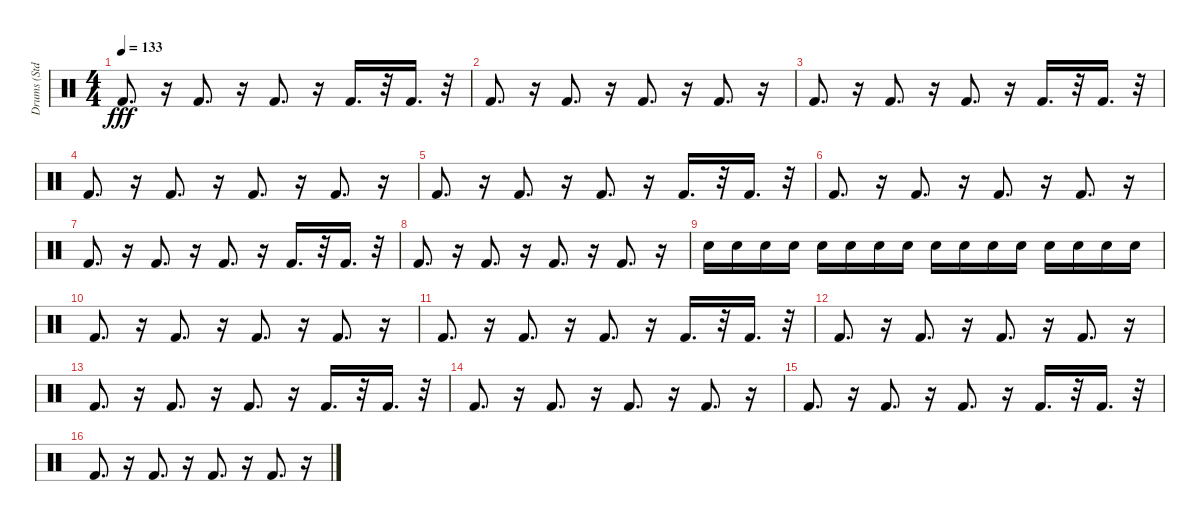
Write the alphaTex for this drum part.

\track ("Drums (Std.)" "Drums (Std") {instrument percussion}
\staff {score}
\articulation defaults
\ts (4 4)
\tempo 133
\clef neutral
\ks c "Kick (hit) 2".8{d dy fff}
r.16 "Kick (hit) 2".8{d} r.16 "Kick (hit) 2".8{d} r.16 "Kick (hit) 2".16{d} r.32 "Kick (hit) 2".16{d} r.32 |
"Kick (hit) 2".8{d} r.16 "Kick (hit) 2".8{d} r.16 "Kick (hit) 2".8{d} r.16 "Kick (hit) 2".8{d} r.16 |
"Kick (hit) 2".8{d} r.16 "Kick (hit) 2".8{d} r.16 "Kick (hit) 2".8{d} r.16 "Kick (hit) 2".16{d} r.32 "Kick (hit) 2".16{d} r.32 |
"Kick (hit) 2".8{d} r.16 "Kick (hit) 2".8{d} r.16 "Kick (hit) 2".8{d} r.16 "Kick (hit) 2".8{d} r.16 |
"Kick (hit) 2".8{d} r.16 "Kick (hit) 2".8{d} r.16 "Kick (hit) 2".8{d} r.16 "Kick (hit) 2".16{d} r.32 "Kick (hit) 2".16{d} r.32 |
"Kick (hit) 2".8{d} r.16 "Kick (hit) 2".8{d} r.16 "Kick (hit) 2".8{d} r.16 "Kick (hit) 2".8{d} r.16 |
"Kick (hit) 2".8{d} r.16 "Kick (hit) 2".8{d} r.16 "Kick (hit) 2".8{d} r.16 "Kick (hit) 2".16{d} r.32 "Kick (hit) 2".16{d} r.32 |
"Kick (hit) 2".8{d} r.16 "Kick (hit) 2".8{d} r.16 "Kick (hit) 2".8{d} r.16 "Kick (hit) 2".8{d} r.16 |
"Snare (hit) 2".16 "Snare (hit) 2".16 "Snare (hit) 2".16 "Snare (hit) 2".16 "Snare (hit) 2".16 "Snare (hit) 2".16 "Snare (hit) 2".16 "Snare (hit) 2".16 "Snare (hit) 2".16 "Snare (hit) 2".16 "Snare (hit) 2".16 "Snare (hit) 2".16 "Snare (hit) 2".16 "Snare (hit) 2".16 "Snare (hit) 2".16 "Snare (hit) 2".16 |
"Kick (hit) 2".8{d} r.16 "Kick (hit) 2".8{d} r.16 "Kick (hit) 2".8{d} r.16 "Kick (hit) 2".8{d} r.16 |
"Kick (hit) 2".8{d} r.16 "Kick (hit) 2".8{d} r.16 "Kick (hit) 2".8{d} r.16 "Kick (hit) 2".16{d} r.32 "Kick (hit) 2".16{d} r.32 |
"Kick (hit) 2".8{d} r.16 "Kick (hit) 2".8{d} r.16 "Kick (hit) 2".8{d} r.16 "Kick (hit) 2".8{d} r.16 |
"Kick (hit) 2".8{d} r.16 "Kick (hit) 2".8{d} r.16 "Kick (hit) 2".8{d} r.16 "Kick (hit) 2".16{d} r.32 "Kick (hit) 2".16{d} r.32 |
"Kick (hit) 2".8{d} r.16 "Kick (hit) 2".8{d} r.16 "Kick (hit) 2".8{d} r.16 "Kick (hit) 2".8{d} r.16 |
"Kick (hit) 2".8{d} r.16 "Kick (hit) 2".8{d} r.16 "Kick (hit) 2".8{d} r.16 "Kick (hit) 2".16{d} r.32 "Kick (hit) 2".16{d} r.32 |
"Kick (hit) 2".8{d} r.16 "Kick (hit) 2".8{d} r.16 "Kick (hit) 2".8{d} r.16 "Kick (hit) 2".8{d} r.16
